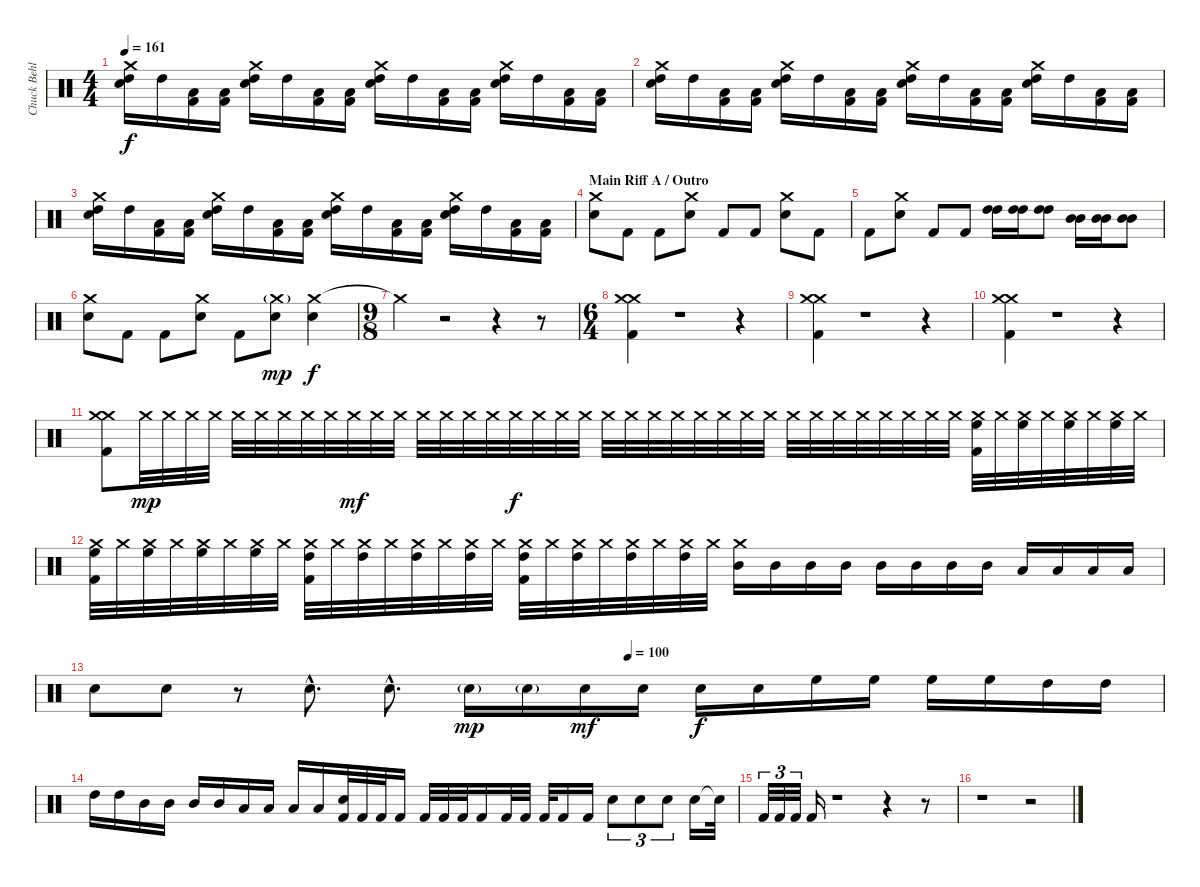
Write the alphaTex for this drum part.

\track ("Chuck Behler" "Chuck Behl") {instrument percussion}
\staff {score}
\articulation defaults
\ts (4 4)
\tempo 161
\clef neutral
\ks c
("Crash medium (hit)" "High Tom (hit)" "Snare (hit) 2").16{dy f} "High Tom (hit)".16 ("Low Tom (hit)" "Kick (hit) 2").16 ("Low Tom (hit)" "Kick (hit) 2").16 ("Crash medium (hit)" "High Tom (hit)" "Snare (hit) 2").16 "High Tom (hit)".16 ("Low Tom (hit)" "Kick (hit) 2").16 ("Low Tom (hit)" "Kick (hit) 2").16 ("Crash medium (hit)" "High Tom (hit)" "Snare (hit) 2").16 "High Tom (hit)".16 ("Low Tom (hit)" "Kick (hit) 2").16 ("Low Tom (hit)" "Kick (hit) 2").16 ("Crash medium (hit)" "High Tom (hit)" "Snare (hit) 2").16 "High Tom (hit)".16 ("Low Tom (hit)" "Kick (hit) 2").16 ("Low Tom (hit)" "Kick (hit) 2").16 |
("Crash medium (hit)" "High Tom (hit)" "Snare (hit) 2").16 "High Tom (hit)".16 ("Low Tom (hit)" "Kick (hit) 2").16 ("Low Tom (hit)" "Kick (hit) 2").16 ("Crash medium (hit)" "High Tom (hit)" "Snare (hit) 2").16 "High Tom (hit)".16 ("Low Tom (hit)" "Kick (hit) 2").16 ("Low Tom (hit)" "Kick (hit) 2").16 ("Crash medium (hit)" "High Tom (hit)" "Snare (hit) 2").16 "High Tom (hit)".16 ("Low Tom (hit)" "Kick (hit) 2").16 ("Low Tom (hit)" "Kick (hit) 2").16 ("Crash medium (hit)" "High Tom (hit)" "Snare (hit) 2").16 "High Tom (hit)".16 ("Low Tom (hit)" "Kick (hit) 2").16 ("Low Tom (hit)" "Kick (hit) 2").16 |
("Crash medium (hit)" "High Tom (hit)" "Snare (hit) 2").16 "High Tom (hit)".16 ("Low Tom (hit)" "Kick (hit) 2").16 ("Low Tom (hit)" "Kick (hit) 2").16 ("Crash medium (hit)" "High Tom (hit)" "Snare (hit) 2").16 "High Tom (hit)".16 ("Low Tom (hit)" "Kick (hit) 2").16 ("Low Tom (hit)" "Kick (hit) 2").16 ("Crash medium (hit)" "High Tom (hit)" "Snare (hit) 2").16 "High Tom (hit)".16 ("Low Tom (hit)" "Kick (hit) 2").16 ("Low Tom (hit)" "Kick (hit) 2").16 ("Crash medium (hit)" "High Tom (hit)" "Snare (hit) 2").16 "High Tom (hit)".16 ("Low Tom (hit)" "Kick (hit) 2").16 ("Low Tom (hit)" "Kick (hit) 2").16 |
\section ("" "Main Riff A / Outro")
("Crash medium (hit)" "Snare (hit) 2").8 "Kick (hit) 2".8 "Kick (hit) 2".8 ("Crash medium (hit)" "Snare (hit) 2").8 "Kick (hit) 2".8 "Kick (hit) 2".8 ("Crash medium (hit)" "Snare (hit) 2").8 "Kick (hit) 2".8 |
"Kick (hit) 2".8 ("Crash medium (hit)" "Snare (hit) 2").8 "Kick (hit) 2".8 "Kick (hit) 2".8 ("High Tom (hit)" "High Tom (hit)").16 ("High Tom (hit)" "High Tom (hit)").16 ("High Tom (hit)" "High Tom (hit)").8 ("Mid Tom (hit)" "Mid Tom (hit)").16 ("Mid Tom (hit)" "Mid Tom (hit)").16 ("Mid Tom (hit)" "Mid Tom (hit)").8 |
("Crash medium (hit)" "Snare (hit) 2").8 "Kick (hit) 2".8 "Kick (hit) 2".8 ("Crash medium (hit)" "Snare (hit) 2").8 "Kick (hit) 2".8 ("Crash medium (hit)"{g} "Snare (hit) 2").8{dy mp} ("Crash medium (hit)" "Snare (hit) 2").4{dy f} |
\ts (9 8)
"Crash medium (hit)"{t}.4 r.2 r.4 r.8 |
\ts (6 4)
("Crash medium (hit)" "Crash medium (hit)" "Kick (hit) 2").4 r.1 r.4 |
("Crash medium (hit)" "Crash medium (hit)" "Kick (hit) 2").4 r.1 r.4 |
("Crash medium (hit)" "Crash medium (hit)" "Kick (hit) 2").4 r.1 r.4 |
("Crash medium (hit)" "Crash medium (hit)" "Kick (hit) 2").8 "Crash medium (hit)".32{dy mp} "Crash medium (hit)".32 "Crash medium (hit)".32 "Crash medium (hit)".32 "Crash medium (hit)".32 "Crash medium (hit)".32 "Crash medium (hit)".32 "Crash medium (hit)".32 "Crash medium (hit)".32 "Crash medium (hit)".32{dy mf} "Crash medium (hit)".32 "Crash medium (hit)".32 "Crash medium (hit)".32 "Crash medium (hit)".32 "Crash medium (hit)".32 "Crash medium (hit)".32 "Crash medium (hit)".32{dy f} "Crash medium (hit)".32 "Crash medium (hit)".32 "Crash medium (hit)".32 "Crash medium (hit)".32 "Crash medium (hit)".32 "Crash medium (hit)".32 "Crash medium (hit)".32 "Crash medium (hit)".32 "Crash medium (hit)".32 "Crash medium (hit)".32 "Crash medium (hit)".32 "Crash medium (hit)".32 "Crash medium (hit)".32 "Crash medium (hit)".32 "Crash medium (hit)".32 "Crash medium (hit)".32 "Crash medium (hit)".32 "Crash medium (hit)".32 "Crash medium (hit)".32 ("Crash medium (hit)" "High Floor Tom (hit)" "Kick (hit) 2").32 "Crash medium (hit)".32 ("Crash medium (hit)" "High Floor Tom (hit)").32 "Crash medium (hit)".32 ("Crash medium (hit)" "High Floor Tom (hit)").32 "Crash medium (hit)".32 ("Crash medium (hit)" "High Floor Tom (hit)").32 "Crash medium (hit)".32 |
("Crash medium (hit)" "High Floor Tom (hit)" "Kick (hit) 2").32 "Crash medium (hit)".32 ("Crash medium (hit)" "High Floor Tom (hit)").32 "Crash medium (hit)".32 ("Crash medium (hit)" "High Floor Tom (hit)").32 "Crash medium (hit)".32 ("Crash medium (hit)" "High Floor Tom (hit)").32 "Crash medium (hit)".32 ("Crash medium (hit)" "High Tom (hit)" "Kick (hit) 2").32 "Crash medium (hit)".32 ("Crash medium (hit)" "High Tom (hit)").32 "Crash medium (hit)".32 ("Crash medium (hit)" "High Tom (hit)").32 "Crash medium (hit)".32 ("Crash medium (hit)" "High Tom (hit)").32 "Crash medium (hit)".32 ("Crash medium (hit)" "High Tom (hit)" "Kick (hit) 2").32 "Crash medium (hit)".32 ("Crash medium (hit)" "High Tom (hit)").32 "Crash medium (hit)".32 ("Crash medium (hit)" "High Tom (hit)").32 "Crash medium (hit)".32 ("Crash medium (hit)" "High Tom (hit)").32 "Crash medium (hit)".32 ("Crash medium (hit)" "Mid Tom (hit)").16 "Mid Tom (hit)".16 "Mid Tom (hit)".16 "Mid Tom (hit)".16 "Mid Tom (hit)".16 "Mid Tom (hit)".16 "Mid Tom (hit)".16 "Mid Tom (hit)".16 "Low Tom (hit)".16 "Low Tom (hit)".16 "Low Tom (hit)".16 "Low Tom (hit)".16 |
\tempo (100 0.5)
"Snare (hit) 2".8 "Snare (hit) 2".8 r.8 "Snare (hit) 2"{hac}.8{d} "Snare (hit) 2"{hac}.8{d} "Snare (hit) 2"{g}.16{dy mp} "Snare (hit) 2"{g}.16 "Snare (hit) 2".16{dy mf} "Snare (hit) 2".16 "Snare (hit) 2".16{dy f} "Snare (hit) 2".16 "High Floor Tom (hit)".16 "High Floor Tom (hit)".16 "High Floor Tom (hit)".16 "High Floor Tom (hit)".16 "High Tom (hit)".16 "High Tom (hit)".16 |
"High Tom (hit)".16 "High Tom (hit)".16 "Mid Tom (hit)".16 "Mid Tom (hit)".16 "Mid Tom (hit)".16 "Mid Tom (hit)".16 "Low Tom (hit)".16 "Low Tom (hit)".16 "Low Tom (hit)".16 "Low Tom (hit)".16 ("Snare (hit) 2" "Kick (hit) 2").32 "Kick (hit) 2".32 "Kick (hit) 2".32 "Kick (hit) 2".16 "Kick (hit) 2".32 "Kick (hit) 2".32 "Kick (hit) 2".32 "Kick (hit) 2".16 "Kick (hit) 2".32 "Kick (hit) 2".32 "Kick (hit) 2".32 "Kick (hit) 2".16 "Kick (hit) 2".16 "Snare (hit) 2".8{tu (3 2)} "Snare (hit) 2".8{tu (3 2)} "Snare (hit) 2".8{tu (3 2)} "Snare (hit) 2".16 "Snare (hit)"{t}.32 |
"Kick (hit) 2".32{tu (3 2)} "Kick (hit) 2".32{tu (3 2)} "Kick (hit) 2".32{tu (3 2)} "Kick (hit) 2".16 r.1 r.4 r.8 |
r.1 r.2
